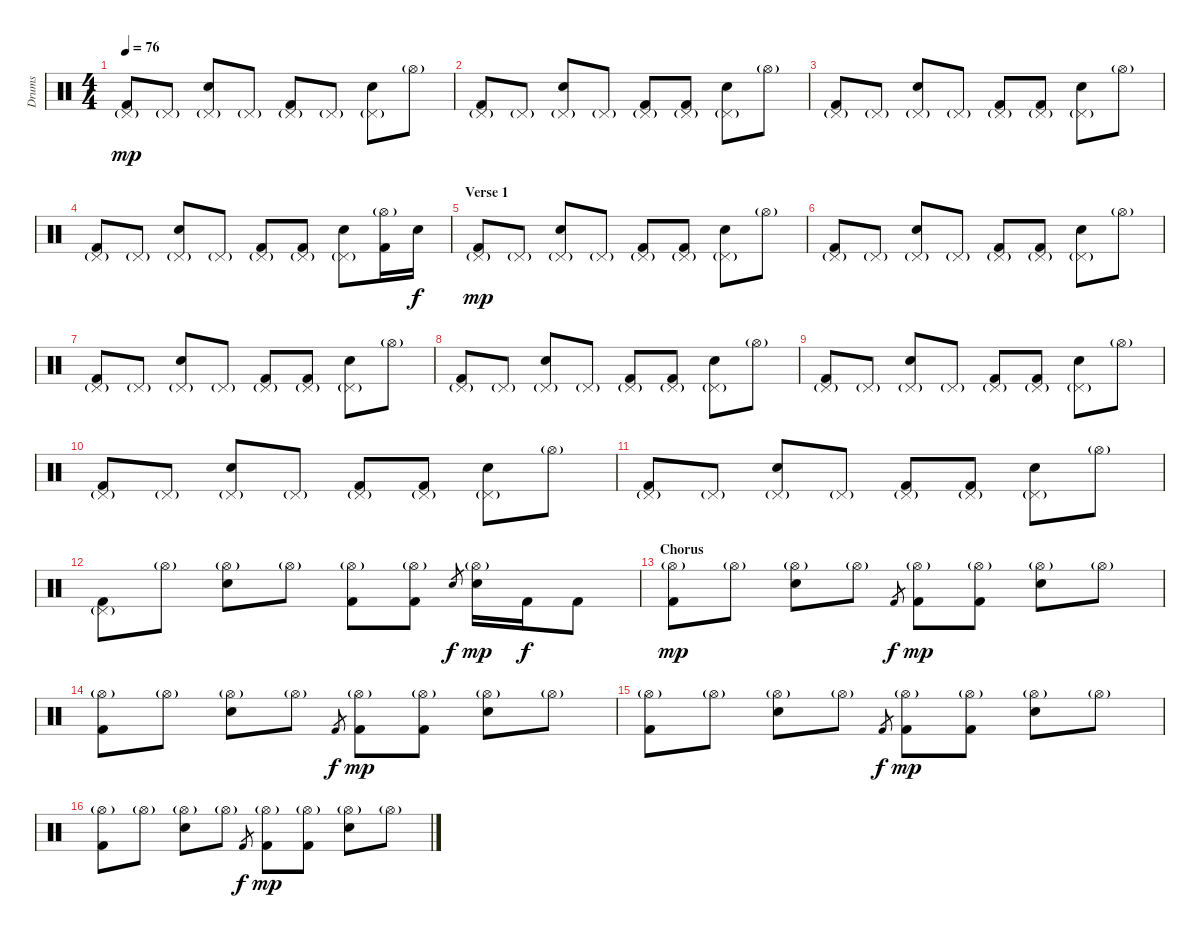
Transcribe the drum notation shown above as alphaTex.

\track ("Drums" "Drums") {instrument percussion}
\staff {score}
\articulation defaults
\ts (4 4)
\tempo 76
\clef neutral
\ks c
("Kick (hit) 2" "Pedal Hi-Hat (hit)"{g}).8{dy mp} "Pedal Hi-Hat (hit)"{g}.8 ("Electric Snare (hit)" "Pedal Hi-Hat (hit)"{g}).8 "Pedal Hi-Hat (hit)"{g}.8 ("Kick (hit) 2" "Pedal Hi-Hat (hit)"{g}).8 "Pedal Hi-Hat (hit)"{g}.8 ("Electric Snare (hit)" "Pedal Hi-Hat (hit)"{g}).8 "Hi-Hat (open)"{g}.8 |
("Kick (hit) 2" "Pedal Hi-Hat (hit)"{g}).8 "Pedal Hi-Hat (hit)"{g}.8 ("Electric Snare (hit)" "Pedal Hi-Hat (hit)"{g}).8 "Pedal Hi-Hat (hit)"{g}.8 ("Kick (hit) 2" "Pedal Hi-Hat (hit)"{g}).8 ("Kick (hit) 2" "Pedal Hi-Hat (hit)"{g}).8 ("Electric Snare (hit)" "Pedal Hi-Hat (hit)"{g}).8 "Hi-Hat (open)"{g}.8 |
("Kick (hit) 2" "Pedal Hi-Hat (hit)"{g}).8 "Pedal Hi-Hat (hit)"{g}.8 ("Electric Snare (hit)" "Pedal Hi-Hat (hit)"{g}).8 "Pedal Hi-Hat (hit)"{g}.8 ("Kick (hit) 2" "Pedal Hi-Hat (hit)"{g}).8 ("Kick (hit) 2" "Pedal Hi-Hat (hit)"{g}).8 ("Electric Snare (hit)" "Pedal Hi-Hat (hit)"{g}).8 "Hi-Hat (open)"{g}.8 |
("Kick (hit) 2" "Pedal Hi-Hat (hit)"{g}).8 "Pedal Hi-Hat (hit)"{g}.8 ("Electric Snare (hit)" "Pedal Hi-Hat (hit)"{g}).8 "Pedal Hi-Hat (hit)"{g}.8 ("Kick (hit) 2" "Pedal Hi-Hat (hit)"{g}).8 ("Kick (hit) 2" "Pedal Hi-Hat (hit)"{g}).8 ("Electric Snare (hit)" "Pedal Hi-Hat (hit)"{g}).8 ("Kick (hit) 2" "Hi-Hat (open)"{g}).16 "Electric Snare (hit)".16{dy f} |
\section ("" "Verse 1")
("Kick (hit) 2" "Pedal Hi-Hat (hit)"{g}).8{dy mp} "Pedal Hi-Hat (hit)"{g}.8 ("Electric Snare (hit)" "Pedal Hi-Hat (hit)"{g}).8 "Pedal Hi-Hat (hit)"{g}.8 ("Kick (hit) 2" "Pedal Hi-Hat (hit)"{g}).8 ("Kick (hit) 2" "Pedal Hi-Hat (hit)"{g}).8 ("Electric Snare (hit)" "Pedal Hi-Hat (hit)"{g}).8 "Hi-Hat (open)"{g}.8 |
("Kick (hit) 2" "Pedal Hi-Hat (hit)"{g}).8 "Pedal Hi-Hat (hit)"{g}.8 ("Electric Snare (hit)" "Pedal Hi-Hat (hit)"{g}).8 "Pedal Hi-Hat (hit)"{g}.8 ("Kick (hit) 2" "Pedal Hi-Hat (hit)"{g}).8 ("Kick (hit) 2" "Pedal Hi-Hat (hit)"{g}).8 ("Electric Snare (hit)" "Pedal Hi-Hat (hit)"{g}).8 "Hi-Hat (open)"{g}.8 |
("Kick (hit) 2" "Pedal Hi-Hat (hit)"{g}).8 "Pedal Hi-Hat (hit)"{g}.8 ("Electric Snare (hit)" "Pedal Hi-Hat (hit)"{g}).8 "Pedal Hi-Hat (hit)"{g}.8 ("Kick (hit) 2" "Pedal Hi-Hat (hit)"{g}).8 ("Kick (hit) 2" "Pedal Hi-Hat (hit)"{g}).8 ("Electric Snare (hit)" "Pedal Hi-Hat (hit)"{g}).8 "Hi-Hat (open)"{g}.8 |
("Kick (hit) 2" "Pedal Hi-Hat (hit)"{g}).8 "Pedal Hi-Hat (hit)"{g}.8 ("Electric Snare (hit)" "Pedal Hi-Hat (hit)"{g}).8 "Pedal Hi-Hat (hit)"{g}.8 ("Kick (hit) 2" "Pedal Hi-Hat (hit)"{g}).8 ("Kick (hit) 2" "Pedal Hi-Hat (hit)"{g}).8 ("Electric Snare (hit)" "Pedal Hi-Hat (hit)"{g}).8 "Hi-Hat (open)"{g}.8 |
("Kick (hit) 2" "Pedal Hi-Hat (hit)"{g}).8 "Pedal Hi-Hat (hit)"{g}.8 ("Electric Snare (hit)" "Pedal Hi-Hat (hit)"{g}).8 "Pedal Hi-Hat (hit)"{g}.8 ("Kick (hit) 2" "Pedal Hi-Hat (hit)"{g}).8 ("Kick (hit) 2" "Pedal Hi-Hat (hit)"{g}).8 ("Electric Snare (hit)" "Pedal Hi-Hat (hit)"{g}).8 "Hi-Hat (open)"{g}.8 |
("Kick (hit) 2" "Pedal Hi-Hat (hit)"{g}).8 "Pedal Hi-Hat (hit)"{g}.8 ("Electric Snare (hit)" "Pedal Hi-Hat (hit)"{g}).8 "Pedal Hi-Hat (hit)"{g}.8 ("Kick (hit) 2" "Pedal Hi-Hat (hit)"{g}).8 ("Kick (hit) 2" "Pedal Hi-Hat (hit)"{g}).8 ("Electric Snare (hit)" "Pedal Hi-Hat (hit)"{g}).8 "Hi-Hat (open)"{g}.8 |
("Kick (hit) 2" "Pedal Hi-Hat (hit)"{g}).8 "Pedal Hi-Hat (hit)"{g}.8 ("Electric Snare (hit)" "Pedal Hi-Hat (hit)"{g}).8 "Pedal Hi-Hat (hit)"{g}.8 ("Kick (hit) 2" "Pedal Hi-Hat (hit)"{g}).8 ("Kick (hit) 2" "Pedal Hi-Hat (hit)"{g}).8 ("Electric Snare (hit)" "Pedal Hi-Hat (hit)"{g}).8 "Hi-Hat (open)"{g}.8 |
("Kick (hit) 2" "Pedal Hi-Hat (hit)"{g}).8 "Hi-Hat (open)"{g}.8 ("Electric Snare (hit)" "Hi-Hat (open)"{g}).8 "Hi-Hat (open)"{g}.8 ("Kick (hit) 2" "Hi-Hat (open)"{g}).8 ("Kick (hit) 2" "Hi-Hat (open)"{g}).8 "Electric Snare (hit)".8{gr dy f} ("Electric Snare (hit)" "Hi-Hat (open)"{g}).16{dy mp} "Kick (hit) 2".16{dy f} "Kick (hit) 2".8 |
\section ("" "Chorus")
("Kick (hit) 2" "Hi-Hat (open)"{g}).8{dy mp} "Hi-Hat (open)"{g}.8 ("Electric Snare (hit)" "Hi-Hat (open)"{g}).8 "Hi-Hat (open)"{g}.8 "Kick (hit) 2".8{gr dy f} ("Kick (hit) 2" "Hi-Hat (open)"{g}).8{dy mp} ("Kick (hit) 2" "Hi-Hat (open)"{g}).8 ("Electric Snare (hit)" "Hi-Hat (open)"{g}).8 "Hi-Hat (open)"{g}.8 |
("Kick (hit) 2" "Hi-Hat (open)"{g}).8 "Hi-Hat (open)"{g}.8 ("Electric Snare (hit)" "Hi-Hat (open)"{g}).8 "Hi-Hat (open)"{g}.8 "Kick (hit) 2".8{gr dy f} ("Kick (hit) 2" "Hi-Hat (open)"{g}).8{dy mp} ("Kick (hit) 2" "Hi-Hat (open)"{g}).8 ("Electric Snare (hit)" "Hi-Hat (open)"{g}).8 "Hi-Hat (open)"{g}.8 |
("Kick (hit) 2" "Hi-Hat (open)"{g}).8 "Hi-Hat (open)"{g}.8 ("Electric Snare (hit)" "Hi-Hat (open)"{g}).8 "Hi-Hat (open)"{g}.8 "Kick (hit) 2".8{gr dy f} ("Kick (hit) 2" "Hi-Hat (open)"{g}).8{dy mp} ("Kick (hit) 2" "Hi-Hat (open)"{g}).8 ("Electric Snare (hit)" "Hi-Hat (open)"{g}).8 "Hi-Hat (open)"{g}.8 |
("Kick (hit) 2" "Hi-Hat (open)"{g}).8 "Hi-Hat (open)"{g}.8 ("Electric Snare (hit)" "Hi-Hat (open)"{g}).8 "Hi-Hat (open)"{g}.8 "Kick (hit) 2".8{gr dy f} ("Kick (hit) 2" "Hi-Hat (open)"{g}).8{dy mp} ("Kick (hit) 2" "Hi-Hat (open)"{g}).8 ("Electric Snare (hit)" "Hi-Hat (open)"{g}).8 "Hi-Hat (open)"{g}.8
